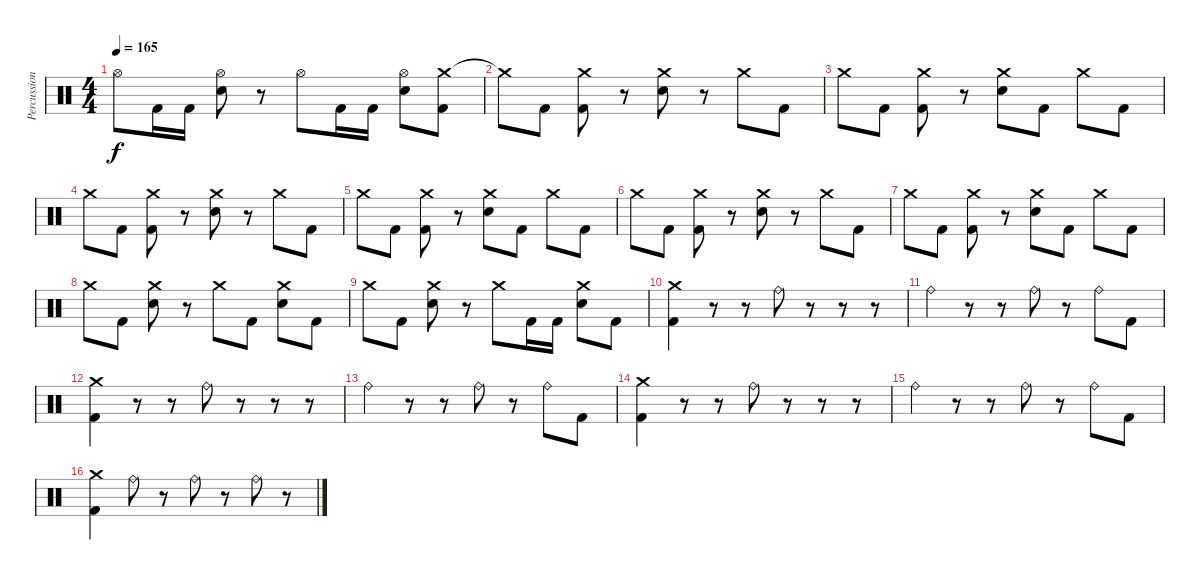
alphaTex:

\track ("Percussion" "Percussion") {instrument percussion}
\staff {score}
\articulation defaults
\ts (4 4)
\tempo 165
\clef neutral
\ks c "Hi-Hat (open)".8{dy f} "Kick (hit) 2".16 "Kick (hit) 2".16
("Hi-Hat (open)" "Electric Snare (hit)").8 r.8 "Hi-Hat (open)".8 "Kick (hit) 2".16 "Kick (hit) 2".16 ("Hi-Hat (open)" "Electric Snare (hit)").8 ("Crash medium (hit)" "Kick (hit) 2").8 |
"Crash medium (hit)"{t}.8 "Kick (hit) 2".8 ("Crash medium (hit)" "Kick (hit) 2").8 r.8 ("Crash medium (hit)" "Electric Snare (hit)").8 r.8 "Crash medium (hit)".8 "Kick (hit) 2".8 |
"Crash medium (hit)".8 "Kick (hit) 2".8 ("Crash medium (hit)" "Kick (hit) 2").8 r.8 ("Crash medium (hit)" "Electric Snare (hit)").8 "Kick (hit) 2".8 "Crash medium (hit)".8 "Kick (hit) 2".8 |
"Crash medium (hit)".8 "Kick (hit) 2".8 ("Crash medium (hit)" "Kick (hit) 2").8 r.8 ("Crash medium (hit)" "Electric Snare (hit)").8 r.8 "Crash medium (hit)".8 "Kick (hit) 2".8 |
"Crash medium (hit)".8 "Kick (hit) 2".8 ("Crash medium (hit)" "Kick (hit) 2").8 r.8 ("Crash medium (hit)" "Electric Snare (hit)").8 "Kick (hit) 2".8 "Crash medium (hit)".8 "Kick (hit) 2".8 |
"Crash medium (hit)".8 "Kick (hit) 2".8 ("Crash medium (hit)" "Kick (hit) 2").8 r.8 ("Crash medium (hit)" "Electric Snare (hit)").8 r.8 "Crash medium (hit)".8 "Kick (hit) 2".8 |
"Crash medium (hit)".8 "Kick (hit) 2".8 ("Crash medium (hit)" "Kick (hit) 2").8 r.8 ("Crash medium (hit)" "Electric Snare (hit)").8 "Kick (hit) 2".8 "Crash medium (hit)".8 "Kick (hit) 2".8 |
"Crash medium (hit)".8 "Kick (hit) 2".8 ("Crash medium (hit)" "Electric Snare (hit)").8 r.8 "Crash medium (hit)".8 "Kick (hit) 2".8 ("Crash medium (hit)" "Electric Snare (hit)").8 "Kick (hit) 2".8 |
"Crash medium (hit)".8 "Kick (hit) 2".8 ("Crash medium (hit)" "Electric Snare (hit)").8 r.8 "Crash medium (hit)".8 "Kick (hit) 2".16 "Kick (hit) 2".16 ("Crash medium (hit)" "Electric Snare (hit)").8 "Kick (hit) 2".8 |
("Crash medium (hit)" "Kick (hit) 2").4 r.8 r.8 "Ride (bell)".8 r.8 r.8 r.8 |
"Ride (bell)".4 r.8 r.8 "Ride (bell)".8 r.8 "Ride (bell)".8 "Kick (hit) 2".8 |
("Crash medium (hit)" "Kick (hit) 2").4 r.8 r.8 "Ride (bell)".8 r.8 r.8 r.8 |
"Ride (bell)".4 r.8 r.8 "Ride (bell)".8 r.8 "Ride (bell)".8 "Kick (hit) 2".8 |
("Crash medium (hit)" "Kick (hit) 2").4 r.8 r.8 "Ride (bell)".8 r.8 r.8 r.8 |
"Ride (bell)".4 r.8 r.8 "Ride (bell)".8 r.8 "Ride (bell)".8 "Kick (hit) 2".8 |
("Crash medium (hit)" "Kick (hit) 2").4 "Ride (bell)".8 r.8 "Ride (bell)".8 r.8 "Ride (bell)".8 r.8
